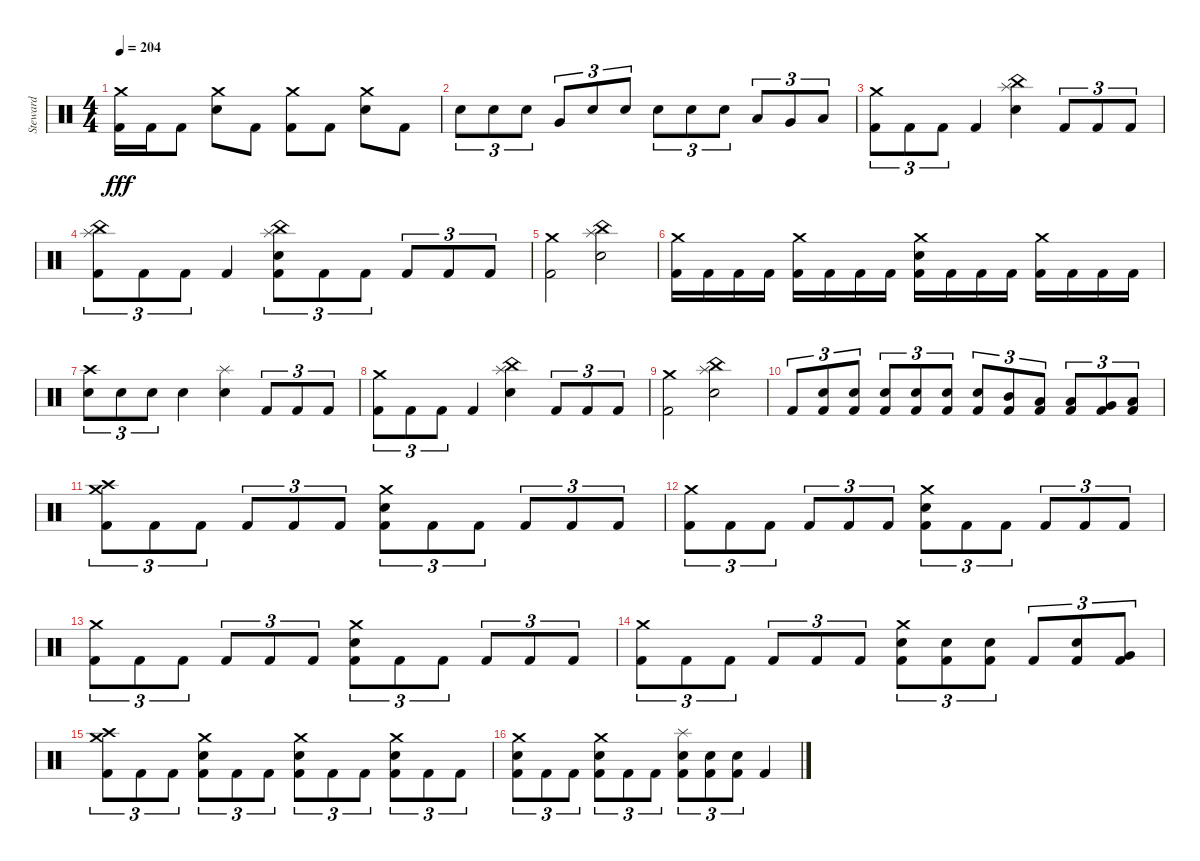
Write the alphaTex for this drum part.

\track ("Steward" "Steward") {instrument percussion}
\staff {score}
\articulation defaults
\ts (4 4)
\tempo 204
\clef neutral
\ks c
("Crash medium (hit)" "Kick (hit) 2").16{dy fff} "Kick (hit) 2".16 "Kick (hit) 2".8 ("Crash medium (hit)" "Electric Snare (hit)").8 "Kick (hit) 2".8 ("Crash medium (hit)" "Kick (hit) 2").8 "Kick (hit) 2".8 ("Crash medium (hit)" "Electric Snare (hit)").8 "Kick (hit) 2".8 |
"Electric Snare (hit)".8{tu (3 2)} "Electric Snare (hit)".8{tu (3 2)} "Electric Snare (hit)".8{tu (3 2)} "Very Low Tom (hit)".8{tu (3 2)} "Electric Snare (hit)".8{tu (3 2)} "Electric Snare (hit)".8{tu (3 2)} "Electric Snare (hit)".8{tu (3 2)} "Electric Snare (hit)".8{tu (3 2)} "Electric Snare (hit)".8{tu (3 2)} "Low Tom (hit)".8{tu (3 2)} "Very Low Tom (hit)".8{tu (3 2)} "Low Floor Tom (hit)".8{tu (3 2)} |
("Crash medium (hit)" "Kick (hit) 2").8{tu (3 2)} "Kick (hit) 2".8{tu (3 2)} "Kick (hit) 2".8{tu (3 2)} "Kick (hit) 2".4 ("China (hit)" "Splash (hit)" "Electric Snare (hit)").4 "Kick (hit) 2".8{tu (3 2)} "Kick (hit) 2".8{tu (3 2)} "Kick (hit) 2".8{tu (3 2)} |
("China (hit)" "Splash (hit)" "Kick (hit) 2").8{tu (3 2)} "Kick (hit) 2".8{tu (3 2)} "Kick (hit) 2".8{tu (3 2)} "Kick (hit) 2".4 ("China (hit)" "Splash (hit)" "Electric Snare (hit)" "Kick (hit) 2").8{tu (3 2)} "Kick (hit) 2".8{tu (3 2)} "Kick (hit) 2".8{tu (3 2)} "Kick (hit) 2".8{tu (3 2)} "Kick (hit) 2".8{tu (3 2)} "Kick (hit) 2".8{tu (3 2)} |
("Crash medium (hit)" "Kick (hit) 2").2 ("China (hit)" "Splash (hit)" "Electric Snare (hit)").2 |
("Crash medium (hit)" "Kick (hit) 2").16 "Kick (hit) 2".16 "Kick (hit) 2".16 "Kick (hit) 2".16 ("Crash medium (hit)" "Kick (hit) 2").16 "Kick (hit) 2".16 "Kick (hit) 2".16 "Kick (hit) 2".16 ("Crash medium (hit)" "Electric Snare (hit)" "Kick (hit) 2").16 "Kick (hit) 2".16 "Kick (hit) 2".16 "Kick (hit) 2".16 ("Crash medium (hit)" "Kick (hit) 2").16 "Kick (hit) 2".16 "Kick (hit) 2".16 "Kick (hit) 2".16 |
("Crash high (hit)" "Electric Snare (hit)").8{tu (3 2)} "Electric Snare (hit)".8{tu (3 2)} "Electric Snare (hit)".8{tu (3 2)} "Electric Snare (hit)".4 ("Splash (hit)" "Electric Snare (hit)").4 "Kick (hit) 2".8{tu (3 2)} "Kick (hit) 2".8{tu (3 2)} "Kick (hit) 2".8{tu (3 2)} |
("Crash medium (hit)" "Kick (hit) 2").8{tu (3 2)} "Kick (hit) 2".8{tu (3 2)} "Kick (hit) 2".8{tu (3 2)} "Kick (hit) 2".4 ("China (hit)" "Splash (hit)" "Electric Snare (hit)").4 "Kick (hit) 2".8{tu (3 2)} "Kick (hit) 2".8{tu (3 2)} "Kick (hit) 2".8{tu (3 2)} |
("Crash medium (hit)" "Kick (hit) 2").2 ("China (hit)" "Splash (hit)" "Electric Snare (hit)").2 |
"Kick (hit) 2".8{tu (3 2)} ("Electric Snare (hit)" "Kick (hit) 2").8{tu (3 2)} ("Electric Snare (hit)" "Kick (hit) 2").8{tu (3 2)} ("Electric Snare (hit)" "Kick (hit) 2").8{tu (3 2)} ("Electric Snare (hit)" "Kick (hit) 2").8{tu (3 2)} ("Electric Snare (hit)" "Kick (hit) 2").8{tu (3 2)} ("Electric Snare (hit)" "Kick (hit) 2").8{tu (3 2)} ("Mid Tom (hit)" "Kick (hit) 2").8{tu (3 2)} ("Low Tom (hit)" "Kick (hit) 2").8{tu (3 2)} ("Low Tom (hit)" "Kick (hit) 2").8{tu (3 2)} ("Very Low Tom (hit)" "Kick (hit) 2").8{tu (3 2)} ("Low Floor Tom (hit)" "Kick (hit) 2").8{tu (3 2)} |
("Crash medium (hit)" "Crash high (hit)" "Kick (hit) 2").8{tu (3 2)} "Kick (hit) 2".8{tu (3 2)} "Kick (hit) 2".8{tu (3 2)} "Kick (hit) 2".8{tu (3 2)} "Kick (hit) 2".8{tu (3 2)} "Kick (hit) 2".8{tu (3 2)} ("Crash medium (hit)" "Electric Snare (hit)" "Kick (hit) 2").8{tu (3 2)} "Kick (hit) 2".8{tu (3 2)} "Kick (hit) 2".8{tu (3 2)} "Kick (hit) 2".8{tu (3 2)} "Kick (hit) 2".8{tu (3 2)} "Kick (hit) 2".8{tu (3 2)} |
("Crash medium (hit)" "Kick (hit) 2").8{tu (3 2)} "Kick (hit) 2".8{tu (3 2)} "Kick (hit) 2".8{tu (3 2)} "Kick (hit) 2".8{tu (3 2)} "Kick (hit) 2".8{tu (3 2)} "Kick (hit) 2".8{tu (3 2)} ("Crash medium (hit)" "Electric Snare (hit)" "Kick (hit) 2").8{tu (3 2)} "Kick (hit) 2".8{tu (3 2)} "Kick (hit) 2".8{tu (3 2)} "Kick (hit) 2".8{tu (3 2)} "Kick (hit) 2".8{tu (3 2)} "Kick (hit) 2".8{tu (3 2)} |
("Crash medium (hit)" "Kick (hit) 2").8{tu (3 2)} "Kick (hit) 2".8{tu (3 2)} "Kick (hit) 2".8{tu (3 2)} "Kick (hit) 2".8{tu (3 2)} "Kick (hit) 2".8{tu (3 2)} "Kick (hit) 2".8{tu (3 2)} ("Crash medium (hit)" "Electric Snare (hit)" "Kick (hit) 2").8{tu (3 2)} "Kick (hit) 2".8{tu (3 2)} "Kick (hit) 2".8{tu (3 2)} "Kick (hit) 2".8{tu (3 2)} "Kick (hit) 2".8{tu (3 2)} "Kick (hit) 2".8{tu (3 2)} |
("Crash medium (hit)" "Kick (hit) 2").8{tu (3 2)} "Kick (hit) 2".8{tu (3 2)} "Kick (hit) 2".8{tu (3 2)} "Kick (hit) 2".8{tu (3 2)} "Kick (hit) 2".8{tu (3 2)} "Kick (hit) 2".8{tu (3 2)} ("Crash medium (hit)" "Electric Snare (hit)" "Kick (hit) 2").8{tu (3 2)} ("Electric Snare (hit)" "Kick (hit) 2").8{tu (3 2)} ("Electric Snare (hit)" "Kick (hit) 2").8{tu (3 2)} "Kick (hit) 2".8{tu (3 2)} ("Electric Snare (hit)" "Kick (hit) 2").8{tu (3 2)} ("Very Low Tom (hit)" "Kick (hit) 2").8{tu (3 2)} |
("Crash medium (hit)" "Crash high (hit)" "Kick (hit) 2").8{tu (3 2)} "Kick (hit) 2".8{tu (3 2)} "Kick (hit) 2".8{tu (3 2)} ("Crash medium (hit)" "Electric Snare (hit)" "Kick (hit) 2").8{tu (3 2)} "Kick (hit) 2".8{tu (3 2)} "Kick (hit) 2".8{tu (3 2)} ("Crash medium (hit)" "Electric Snare (hit)" "Kick (hit) 2").8{tu (3 2)} "Kick (hit) 2".8{tu (3 2)} "Kick (hit) 2".8{tu (3 2)} ("Crash medium (hit)" "Electric Snare (hit)" "Kick (hit) 2").8{tu (3 2)} "Kick (hit) 2".8{tu (3 2)} "Kick (hit) 2".8{tu (3 2)} |
("Crash medium (hit)" "Electric Snare (hit)" "Kick (hit) 2").8{tu (3 2)} "Kick (hit) 2".8{tu (3 2)} "Kick (hit) 2".8{tu (3 2)} ("Crash medium (hit)" "Electric Snare (hit)" "Kick (hit) 2").8{tu (3 2)} "Kick (hit) 2".8{tu (3 2)} "Kick (hit) 2".8{tu (3 2)} ("Splash (hit)" "Electric Snare (hit)" "Kick (hit) 2").8{tu (3 2)} ("Electric Snare (hit)" "Kick (hit) 2").8{tu (3 2)} ("Electric Snare (hit)" "Kick (hit) 2").8{tu (3 2)} "Kick (hit) 2".4
